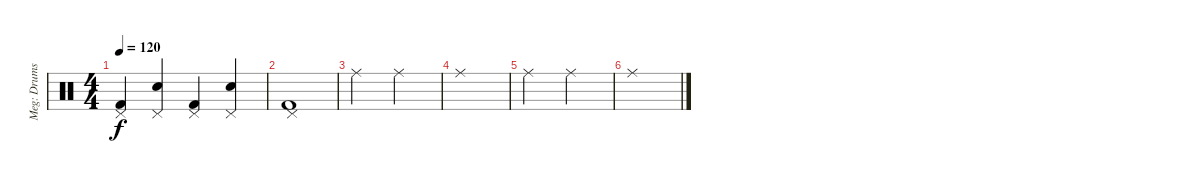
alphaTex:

\track ("Meg: Drums" "Meg: Drums") {instrument percussion}
\staff {score}
\articulation defaults
\ts (4 4)
\tempo 120
\clef neutral
\ks c
("Kick (hit) 2" "Pedal Hi-Hat (hit)").4{dy f} ("Snare (hit) 2" "Pedal Hi-Hat (hit)").4 ("Kick (hit) 2" "Pedal Hi-Hat (hit)").4 ("Snare (hit) 2" "Pedal Hi-Hat (hit)").4 |
("Kick (hit) 2" "Pedal Hi-Hat (hit)").1 |
"Ride (middle)".2 "Ride (middle)".2 |
"Ride (middle)".1 |
"Ride (middle)".2 "Ride (middle)".2 |
"Ride (middle)".1
